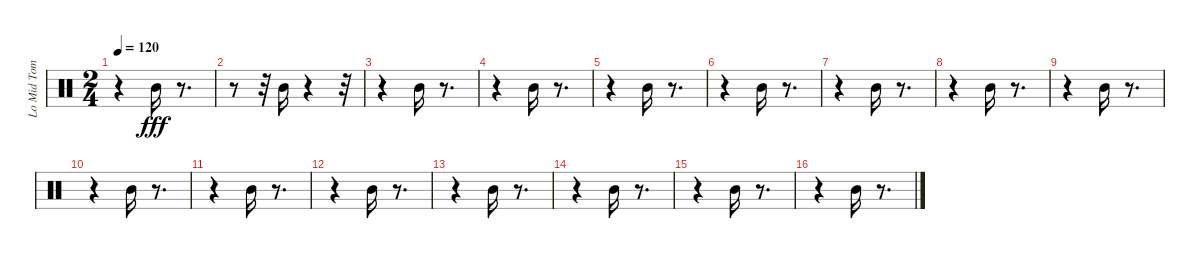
\track ("Lo Mid Tom (1) (1) (1) (1)" "Lo Mid Tom") {instrument percussion}
\staff {score}
\articulation defaults
\ts (2 4)
\tempo 120
\clef neutral
\ks c
r.4{dy fff} "Mid Tom (hit)".16 r.8{d} |
r.8 r.32 "Mid Tom (hit)".16 r.4 r.32 |
r.4 "Mid Tom (hit)".16 r.8{d} |
r.4 "Mid Tom (hit)".16 r.8{d} |
r.4 "Mid Tom (hit)".16 r.8{d} |
r.4 "Mid Tom (hit)".16 r.8{d} |
r.4 "Mid Tom (hit)".16 r.8{d} |
r.4 "Mid Tom (hit)".16 r.8{d} |
r.4 "Mid Tom (hit)".16 r.8{d} |
r.4 "Mid Tom (hit)".16 r.8{d} |
r.4 "Mid Tom (hit)".16 r.8{d} |
r.4 "Mid Tom (hit)".16 r.8{d} |
r.4 "Mid Tom (hit)".16 r.8{d} |
r.4 "Mid Tom (hit)".16 r.8{d} |
r.4 "Mid Tom (hit)".16 r.8{d} |
r.4 "Mid Tom (hit)".16 r.8{d}
